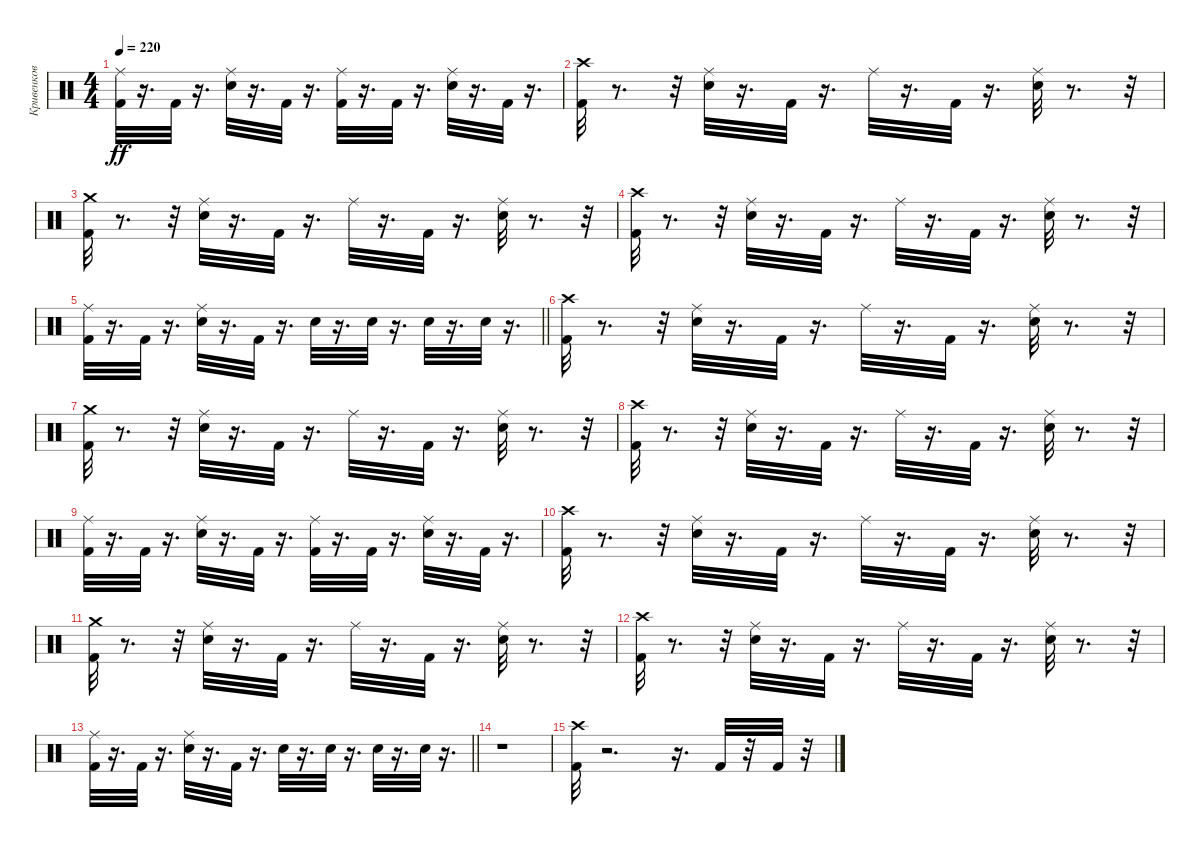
\track ("Кривенков" "Кривенков") {instrument percussion}
\staff {score}
\articulation defaults
\ts (4 4)
\tempo 220
\clef neutral
\ks c
("Ride (middle)" "Kick (hit) 2").32{dy ff} r.16{d} "Kick (hit) 2".32 r.16{d} ("Ride (middle)" "Electric Snare (hit)").32 r.16{d} "Kick (hit) 2".32 r.16{d} ("Ride (middle)" "Kick (hit) 2").32 r.16{d} "Kick (hit) 2".32 r.16{d} ("Ride (middle)" "Electric Snare (hit)").32 r.16{d} "Kick (hit) 2".32 r.16{d} |
("Kick (hit) 2" "Crash high (hit)").32 r.8{d} r.32 ("Ride (middle)" "Electric Snare (hit)").32 r.16{d} "Kick (hit) 2".32 r.16{d} "Ride (middle)".32 r.16{d} "Kick (hit) 2".32 r.16{d} ("Ride (middle)" "Electric Snare (hit)").32 r.8{d} r.32 |
("Crash medium (hit)" "Kick (hit) 2").32 r.8{d} r.32 ("Electric Snare (hit)" "Ride (middle)").32 r.16{d} "Kick (hit) 2".32 r.16{d} "Ride (middle)".32 r.16{d} "Kick (hit) 2".32 r.16{d} ("Electric Snare (hit)" "Ride (middle)").32 r.8{d} r.32 |
("Kick (hit) 2" "Crash high (hit)").32 r.8{d} r.32 ("Electric Snare (hit)" "Ride (middle)").32 r.16{d} "Kick (hit) 2".32 r.16{d} "Ride (middle)".32 r.16{d} "Kick (hit) 2".32 r.16{d} ("Electric Snare (hit)" "Ride (middle)").32 r.8{d} r.32 |
\barLineRight lightlight
("Ride (middle)" "Kick (hit) 2").32 r.16{d} "Kick (hit) 2".32 r.16{d} ("Ride (middle)" "Electric Snare (hit)").32 r.16{d} "Kick (hit) 2".32 r.16{d} "Electric Snare (hit)".32 r.16{d} "Electric Snare (hit)".32 r.16{d} "Electric Snare (hit)".32 r.16{d} "Electric Snare (hit)".32 r.16{d} |
("Kick (hit) 2" "Crash high (hit)").32 r.8{d} r.32 ("Ride (middle)" "Electric Snare (hit)").32 r.16{d} "Kick (hit) 2".32 r.16{d} "Ride (middle)".32 r.16{d} "Kick (hit) 2".32 r.16{d} ("Ride (middle)" "Electric Snare (hit)").32 r.8{d} r.32 |
("Crash medium (hit)" "Kick (hit) 2").32 r.8{d} r.32 ("Electric Snare (hit)" "Ride (middle)").32 r.16{d} "Kick (hit) 2".32 r.16{d} "Ride (middle)".32 r.16{d} "Kick (hit) 2".32 r.16{d} ("Electric Snare (hit)" "Ride (middle)").32 r.8{d} r.32 |
("Kick (hit) 2" "Crash high (hit)").32 r.8{d} r.32 ("Electric Snare (hit)" "Ride (middle)").32 r.16{d} "Kick (hit) 2".32 r.16{d} "Ride (middle)".32 r.16{d} "Kick (hit) 2".32 r.16{d} ("Electric Snare (hit)" "Ride (middle)").32 r.8{d} r.32 |
("Ride (middle)" "Kick (hit) 2").32 r.16{d} "Kick (hit) 2".32 r.16{d} ("Ride (middle)" "Electric Snare (hit)").32 r.16{d} "Kick (hit) 2".32 r.16{d} ("Ride (middle)" "Kick (hit) 2").32 r.16{d} "Kick (hit) 2".32 r.16{d} ("Ride (middle)" "Electric Snare (hit)").32 r.16{d} "Kick (hit) 2".32 r.16{d} |
("Kick (hit) 2" "Crash high (hit)").32 r.8{d} r.32 ("Ride (middle)" "Electric Snare (hit)").32 r.16{d} "Kick (hit) 2".32 r.16{d} "Ride (middle)".32 r.16{d} "Kick (hit) 2".32 r.16{d} ("Ride (middle)" "Electric Snare (hit)").32 r.8{d} r.32 |
("Crash medium (hit)" "Kick (hit) 2").32 r.8{d} r.32 ("Electric Snare (hit)" "Ride (middle)").32 r.16{d} "Kick (hit) 2".32 r.16{d} "Ride (middle)".32 r.16{d} "Kick (hit) 2".32 r.16{d} ("Electric Snare (hit)" "Ride (middle)").32 r.8{d} r.32 |
("Kick (hit) 2" "Crash high (hit)").32 r.8{d} r.32 ("Electric Snare (hit)" "Ride (middle)").32 r.16{d} "Kick (hit) 2".32 r.16{d} "Ride (middle)".32 r.16{d} "Kick (hit) 2".32 r.16{d} ("Electric Snare (hit)" "Ride (middle)").32 r.8{d} r.32 |
\barLineRight lightlight
("Ride (middle)" "Kick (hit) 2").32 r.16{d} "Kick (hit) 2".32 r.16{d} ("Ride (middle)" "Electric Snare (hit)").32 r.16{d} "Kick (hit) 2".32 r.16{d} "Electric Snare (hit)".32 r.16{d} "Electric Snare (hit)".32 r.16{d} "Electric Snare (hit)".32 r.16{d} "Electric Snare (hit)".32 r.16{d} |
r.1 |
("Crash high (hit)" "Kick (hit) 2").32 r.2{d} r.16{d} "Kick (hit) 2".32 r.32 "Kick (hit) 2".32 r.32
